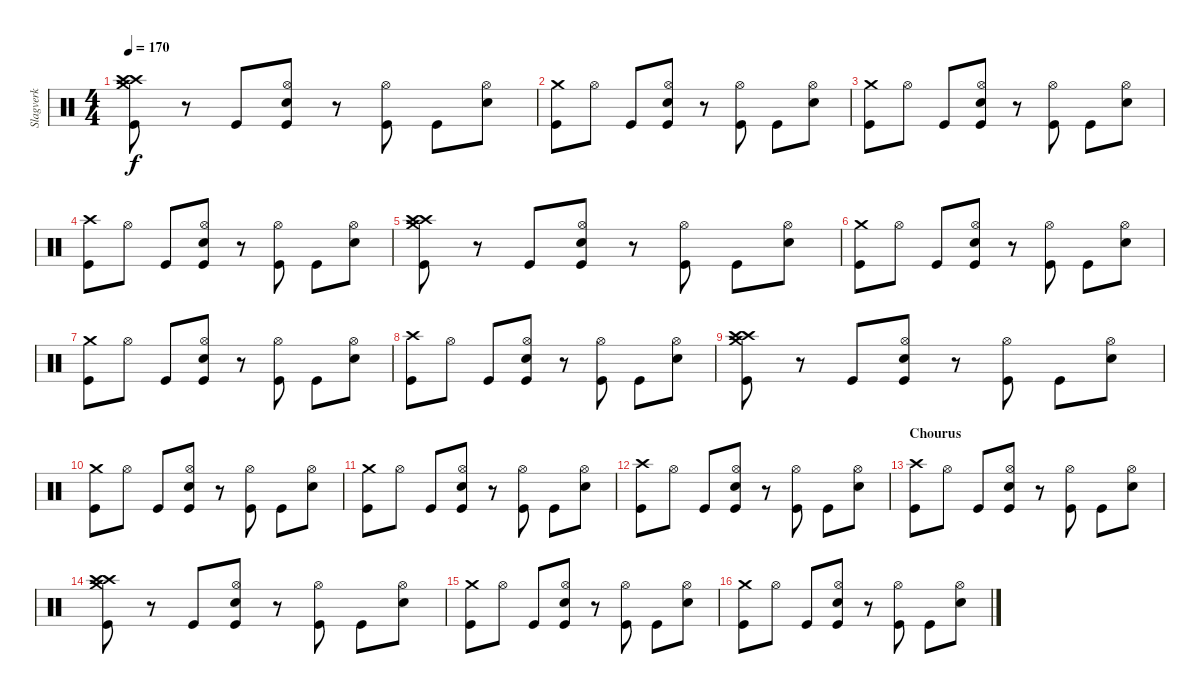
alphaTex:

\track ("Slagverk" "Slagverk") {instrument percussion}
\staff {score}
\articulation defaults
\ts (4 4)
\tempo 170
\clef neutral
\ks c
("Crash high (hit)" "Crash high (hit)" "Crash medium (hit)" "Kick (hit)").8{dy f} r.8 "Kick (hit)".8 ("Hi-Hat (open)" "Snare (hit) 2" "Kick (hit)").8 r.8 ("Hi-Hat (open)" "Kick (hit)").8 "Kick (hit)".8 ("Hi-Hat (open)" "Snare (hit) 2").8 |
("Crash medium (hit)" "Kick (hit)").8 "Hi-Hat (open)".8 "Kick (hit)".8 ("Hi-Hat (open)" "Snare (hit) 2" "Kick (hit)").8 r.8 ("Hi-Hat (open)" "Kick (hit)").8 "Kick (hit)".8 ("Hi-Hat (open)" "Snare (hit) 2").8 |
("Crash medium (hit)" "Kick (hit)").8 "Hi-Hat (open)".8 "Kick (hit)".8 ("Hi-Hat (open)" "Snare (hit) 2" "Kick (hit)").8 r.8 ("Hi-Hat (open)" "Kick (hit)").8 "Kick (hit)".8 ("Hi-Hat (open)" "Snare (hit) 2").8 |
("Crash high (hit)" "Kick (hit)").8 "Hi-Hat (open)".8 "Kick (hit)".8 ("Hi-Hat (open)" "Snare (hit) 2" "Kick (hit)").8 r.8 ("Hi-Hat (open)" "Kick (hit)").8 "Kick (hit)".8 ("Hi-Hat (open)" "Snare (hit) 2").8 |
("Crash high (hit)" "Crash high (hit)" "Crash medium (hit)" "Kick (hit)").8 r.8 "Kick (hit)".8 ("Hi-Hat (open)" "Snare (hit) 2" "Kick (hit)").8 r.8 ("Hi-Hat (open)" "Kick (hit)").8 "Kick (hit)".8 ("Hi-Hat (open)" "Snare (hit) 2").8 |
("Crash medium (hit)" "Kick (hit)").8 "Hi-Hat (open)".8 "Kick (hit)".8 ("Hi-Hat (open)" "Snare (hit) 2" "Kick (hit)").8 r.8 ("Hi-Hat (open)" "Kick (hit)").8 "Kick (hit)".8 ("Hi-Hat (open)" "Snare (hit) 2").8 |
("Crash medium (hit)" "Kick (hit)").8 "Hi-Hat (open)".8 "Kick (hit)".8 ("Hi-Hat (open)" "Snare (hit) 2" "Kick (hit)").8 r.8 ("Hi-Hat (open)" "Kick (hit)").8 "Kick (hit)".8 ("Hi-Hat (open)" "Snare (hit) 2").8 |
("Crash high (hit)" "Kick (hit)").8 "Hi-Hat (open)".8 "Kick (hit)".8 ("Hi-Hat (open)" "Snare (hit) 2" "Kick (hit)").8 r.8 ("Hi-Hat (open)" "Kick (hit)").8 "Kick (hit)".8 ("Hi-Hat (open)" "Snare (hit) 2").8 |
("Crash high (hit)" "Crash high (hit)" "Crash medium (hit)" "Kick (hit)").8 r.8 "Kick (hit)".8 ("Hi-Hat (open)" "Snare (hit) 2" "Kick (hit)").8 r.8 ("Hi-Hat (open)" "Kick (hit)").8 "Kick (hit)".8 ("Hi-Hat (open)" "Snare (hit) 2").8 |
("Crash medium (hit)" "Kick (hit)").8 "Hi-Hat (open)".8 "Kick (hit)".8 ("Hi-Hat (open)" "Snare (hit) 2" "Kick (hit)").8 r.8 ("Hi-Hat (open)" "Kick (hit)").8 "Kick (hit)".8 ("Hi-Hat (open)" "Snare (hit) 2").8 |
("Crash medium (hit)" "Kick (hit)").8 "Hi-Hat (open)".8 "Kick (hit)".8 ("Hi-Hat (open)" "Snare (hit) 2" "Kick (hit)").8 r.8 ("Hi-Hat (open)" "Kick (hit)").8 "Kick (hit)".8 ("Hi-Hat (open)" "Snare (hit) 2").8 |
("Crash high (hit)" "Kick (hit)").8 "Hi-Hat (open)".8 "Kick (hit)".8 ("Hi-Hat (open)" "Snare (hit) 2" "Kick (hit)").8 r.8 ("Hi-Hat (open)" "Kick (hit)").8 "Kick (hit)".8 ("Hi-Hat (open)" "Snare (hit) 2").8 |
\section ("" "Chourus")
("Crash high (hit)" "Kick (hit)").8 "Hi-Hat (open)".8 "Kick (hit)".8 ("Hi-Hat (open)" "Snare (hit) 2" "Kick (hit)").8 r.8 ("Hi-Hat (open)" "Kick (hit)").8 "Kick (hit)".8 ("Hi-Hat (open)" "Snare (hit) 2").8 |
("Crash high (hit)" "Crash high (hit)" "Crash medium (hit)" "Kick (hit)").8 r.8 "Kick (hit)".8 ("Hi-Hat (open)" "Snare (hit) 2" "Kick (hit)").8 r.8 ("Hi-Hat (open)" "Kick (hit)").8 "Kick (hit)".8 ("Hi-Hat (open)" "Snare (hit) 2").8 |
("Crash medium (hit)" "Kick (hit)").8 "Hi-Hat (open)".8 "Kick (hit)".8 ("Hi-Hat (open)" "Snare (hit) 2" "Kick (hit)").8 r.8 ("Hi-Hat (open)" "Kick (hit)").8 "Kick (hit)".8 ("Hi-Hat (open)" "Snare (hit) 2").8 |
("Crash medium (hit)" "Kick (hit)").8 "Hi-Hat (open)".8 "Kick (hit)".8 ("Hi-Hat (open)" "Snare (hit) 2" "Kick (hit)").8 r.8 ("Hi-Hat (open)" "Kick (hit)").8 "Kick (hit)".8 ("Hi-Hat (open)" "Snare (hit) 2").8
